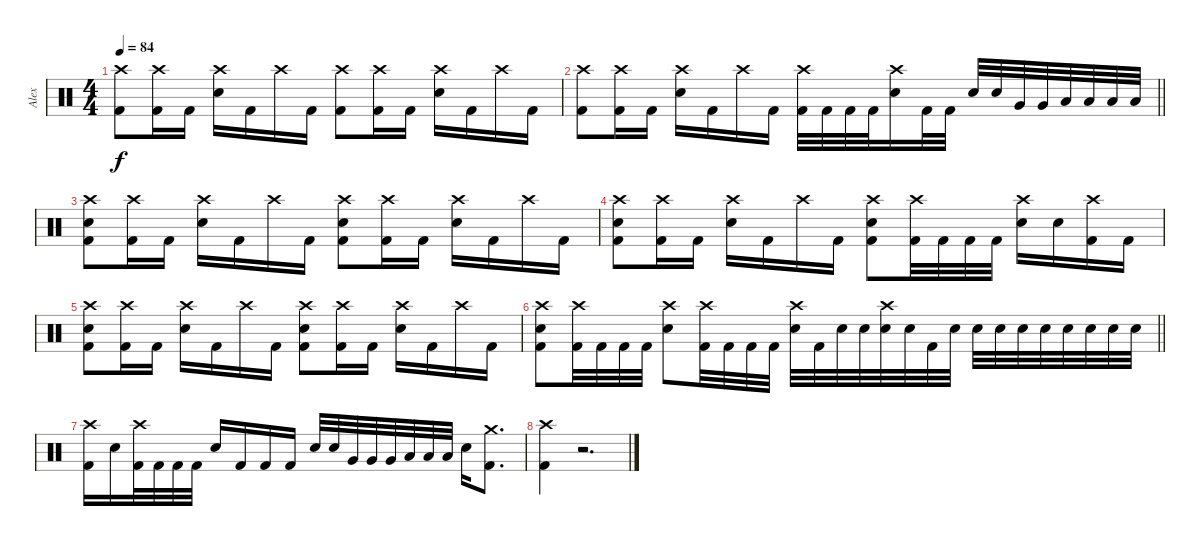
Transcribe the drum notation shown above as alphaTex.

\track ("Alex" "Alex") {instrument percussion}
\staff {score}
\articulation defaults
\ts (4 4)
\tempo 84
\clef neutral
\ks c
("Crash high (hit)" "Kick (hit) 2").8{dy f} ("Crash high (hit)" "Kick (hit) 2").16 "Kick (hit) 2".16 ("Crash high (hit)" "Electric Snare (hit)").16 "Kick (hit) 2".16 "Crash high (hit)".16 "Kick (hit) 2".16 ("Crash high (hit)" "Kick (hit) 2").8 ("Crash high (hit)" "Kick (hit) 2").16 "Kick (hit) 2".16 ("Crash high (hit)" "Electric Snare (hit)").16 "Kick (hit) 2".16 "Crash high (hit)".16 "Kick (hit) 2".16 |
\barLineRight lightlight
("Crash high (hit)" "Kick (hit) 2").8 ("Crash high (hit)" "Kick (hit) 2").16 "Kick (hit) 2".16 ("Crash high (hit)" "Electric Snare (hit)").16 "Kick (hit) 2".16 "Crash high (hit)".16 "Kick (hit) 2".16 ("Crash high (hit)" "Kick (hit) 2").32 "Kick (hit) 2".32 "Kick (hit) 2".32 "Kick (hit) 2".32 ("Crash high (hit)" "Electric Snare (hit)").16 "Kick (hit) 2".32 "Kick (hit) 2".32 "Electric Snare (hit)".32 "Electric Snare (hit)".32 "Very Low Tom (hit)".32 "Very Low Tom (hit)".32 "Low Tom (hit)".32 "Low Tom (hit)".32 "Low Floor Tom (hit)".32 "Low Floor Tom (hit)".32 |
("Crash high (hit)" "Electric Snare (hit)" "Kick (hit) 2").8 ("Crash high (hit)" "Kick (hit) 2").16 "Kick (hit) 2".16 ("Crash high (hit)" "Electric Snare (hit)").16 "Kick (hit) 2".16 "Crash high (hit)".16 "Kick (hit) 2".16 ("Crash high (hit)" "Electric Snare (hit)" "Kick (hit) 2").8 ("Crash high (hit)" "Kick (hit) 2").16 "Kick (hit) 2".16 ("Crash high (hit)" "Electric Snare (hit)").16 "Kick (hit) 2".16 "Crash high (hit)".16 "Kick (hit) 2".16 |
("Crash high (hit)" "Electric Snare (hit)" "Kick (hit) 2").8 ("Crash high (hit)" "Kick (hit) 2").16 "Kick (hit) 2".16 ("Crash high (hit)" "Electric Snare (hit)").16 "Kick (hit) 2".16 "Crash high (hit)".16 "Kick (hit) 2".16 ("Crash high (hit)" "Electric Snare (hit)" "Kick (hit) 2").8 ("Crash high (hit)" "Kick (hit) 2").32 "Kick (hit) 2".32 "Kick (hit) 2".32 "Kick (hit) 2".32 ("Crash high (hit)" "Electric Snare (hit)").16 "Electric Snare (hit)".16 ("Crash high (hit)" "Kick (hit) 2").16 "Kick (hit) 2".16 |
("Crash high (hit)" "Electric Snare (hit)" "Kick (hit) 2").8 ("Crash high (hit)" "Kick (hit) 2").16 "Kick (hit) 2".16 ("Crash high (hit)" "Electric Snare (hit)").16 "Kick (hit) 2".16 "Crash high (hit)".16 "Kick (hit) 2".16 ("Crash high (hit)" "Electric Snare (hit)" "Kick (hit) 2").8 ("Crash high (hit)" "Kick (hit) 2").16 "Kick (hit) 2".16 ("Crash high (hit)" "Electric Snare (hit)").16 "Kick (hit) 2".16 "Crash high (hit)".16 "Kick (hit) 2".16 |
\barLineRight lightlight
("Crash high (hit)" "Electric Snare (hit)" "Kick (hit) 2").8 ("Crash high (hit)" "Kick (hit) 2").32 "Kick (hit) 2".32 "Kick (hit) 2".32 "Kick (hit) 2".32 ("Crash high (hit)" "Electric Snare (hit)").8 ("Crash high (hit)" "Kick (hit) 2").32 "Kick (hit) 2".32 "Kick (hit) 2".32 "Kick (hit) 2".32 ("Crash high (hit)" "Electric Snare (hit)").32 "Kick (hit) 2".32 "Electric Snare (hit)".32 "Electric Snare (hit)".32 ("Crash high (hit)" "Electric Snare (hit)").32 "Electric Snare (hit)".32 "Kick (hit) 2".32 "Electric Snare (hit)".32 "Electric Snare (hit)".32 "Electric Snare (hit)".32 "Electric Snare (hit)".32 "Electric Snare (hit)".32 "Electric Snare (hit)".32 "Electric Snare (hit)".32 "Electric Snare (hit)".32 "Electric Snare (hit)".32 |
("Crash high (hit)" "Kick (hit) 2").16 "Electric Snare (hit)".16 ("Crash high (hit)" "Kick (hit) 2").32 "Kick (hit) 2".32 "Kick (hit) 2".32 "Kick (hit) 2".32 "Electric Snare (hit)".16 "Kick (hit) 2".16 "Kick (hit) 2".16 "Kick (hit) 2".16 "Electric Snare (hit)".32 "Electric Snare (hit)".32 "Very Low Tom (hit)".32 "Very Low Tom (hit)".32 "Very Low Tom (hit)".32 "Low Tom (hit)".32 "Low Tom (hit)".32 "Low Tom (hit)".32 "Electric Snare (hit)".16 ("Crash medium (hit)" "Kick (hit) 2").8{d} |
("Crash high (hit)" "Kick (hit) 2").4 r.2{d}
